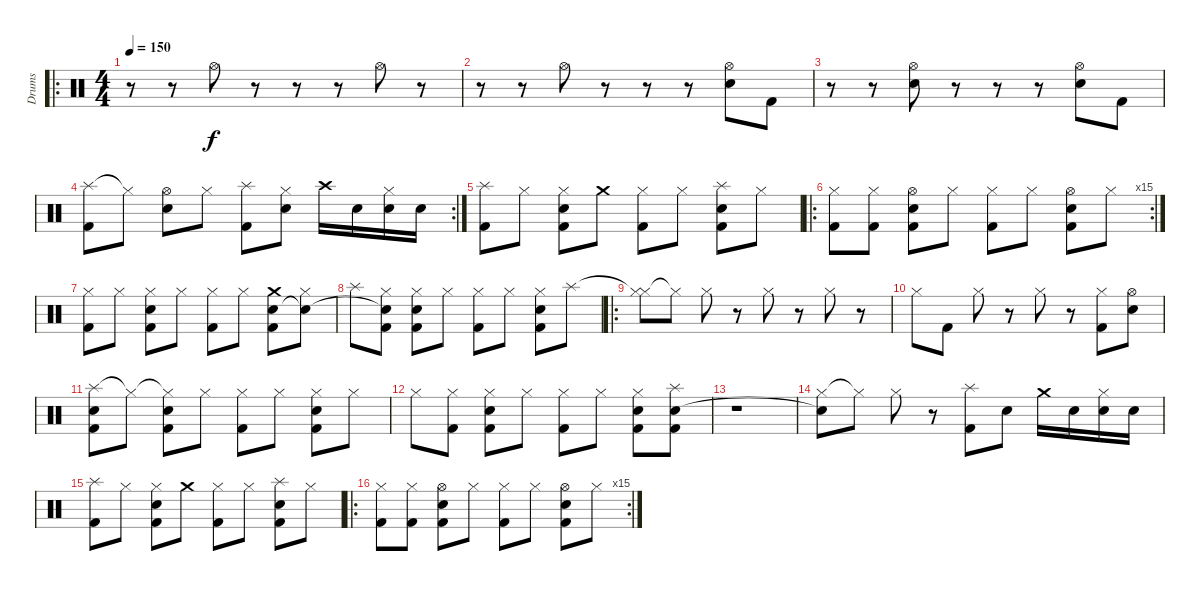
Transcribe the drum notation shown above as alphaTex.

\track ("Drums" "Drums") {instrument percussion}
\staff {score}
\articulation defaults
\ro
\ts (4 4)
\tempo 150
\clef neutral
\ks c
r.8{dy f} r.8 "Hi-Hat (open)".8 r.8 r.8 r.8 "Hi-Hat (open)".8 r.8 |
r.8 r.8 "Hi-Hat (open)".8 r.8 r.8 r.8 ("Hi-Hat (open)" "Snare (hit) 2").8 "Kick (hit) 2".8 |
r.8 r.8 ("Hi-Hat (open)" "Snare (hit) 2").8 r.8 r.8 r.8 ("Hi-Hat (open)" "Snare (hit) 2").8 "Kick (hit) 2".8 |
\rc 2
("Splash (hit)" "Kick (hit) 2").8 "Hi-Hat (closed)"{t}.8 ("Hi-Hat (open)" "Snare (hit) 2").8 "Hi-Hat (closed)".8 ("Splash (hit)" "Kick (hit) 2").8 ("Hi-Hat (closed)" "Snare (hit) 2").8 "Crash high (hit)".16 "Snare (hit) 2".16 ("Hi-Hat (closed)" "Snare (hit) 2").16 "Snare (hit) 2".16 |
("Splash (hit)" "Kick (hit) 2").8 "Hi-Hat (closed)".8 ("Hi-Hat (closed)" "Snare (hit) 2" "Kick (hit) 2").8 "Crash medium (hit)".8 ("Hi-Hat (closed)" "Kick (hit) 2").8 "Hi-Hat (closed)".8 ("Splash (hit)" "Snare (hit) 2" "Kick (hit) 2").8 "Hi-Hat (closed)".8 |
\ro
\rc 15
("Hi-Hat (closed)" "Kick (hit) 2").8 ("Hi-Hat (closed)" "Kick (hit) 2").8 ("Hi-Hat (open)" "Snare (hit) 2" "Kick (hit) 2").8 "Hi-Hat (closed)".8 ("Hi-Hat (closed)" "Kick (hit) 2").8 "Hi-Hat (closed)".8 ("Hi-Hat (open)" "Snare (hit) 2" "Kick (hit) 2").8 "Hi-Hat (closed)".8 |
("Hi-Hat (closed)" "Kick (hit) 2").8 "Hi-Hat (closed)".8 ("Hi-Hat (closed)" "Snare (hit) 2" "Kick (hit) 2").8 "Hi-Hat (closed)".8 ("Hi-Hat (closed)" "Kick (hit) 2").8 "Hi-Hat (closed)".8 ("Crash medium (hit)" "Snare (hit) 2" "Kick (hit) 2").8 ("Hi-Hat (closed)" "Snare (hit)"{t}).8 |
"Splash (hit)".8 ("Hi-Hat (closed)" "Snare (hit)"{t} "Kick (hit) 2").8 ("Hi-Hat (closed)" "Snare (hit) 2" "Kick (hit) 2").8 "Hi-Hat (closed)".8 ("Hi-Hat (closed)" "Kick (hit) 2").8 "Hi-Hat (closed)".8 ("Hi-Hat (closed)" "Snare (hit) 2" "Kick (hit) 2").8 "Splash (hit)".8 |
\ro
("Hi-Hat (closed)"{t} "Hi-Hat (closed)").8 "Hi-Hat (closed)"{t}.8 "Hi-Hat (closed)".8 r.8 "Hi-Hat (closed)".8 r.8 "Hi-Hat (closed)".8 r.8 |
"Hi-Hat (closed)".8 "Kick (hit) 2".8 "Hi-Hat (closed)".8 r.8 "Hi-Hat (closed)".8 r.8 ("Hi-Hat (closed)" "Kick (hit) 2").8 ("Hi-Hat (open)" "Snare (hit) 2").8 |
("Splash (hit)" "Snare (hit) 2" "Kick (hit) 2").8 "Hi-Hat (closed)"{t}.8 ("Hi-Hat (closed)"{t} "Snare (hit) 2" "Kick (hit) 2").8 "Hi-Hat (closed)".8 ("Hi-Hat (closed)" "Kick (hit) 2").8 "Hi-Hat (closed)".8 ("Hi-Hat (closed)" "Snare (hit) 2" "Kick (hit) 2").8 "Hi-Hat (closed)".8 |
"Hi-Hat (closed)".8 ("Hi-Hat (closed)" "Kick (hit) 2").8 ("Hi-Hat (closed)" "Snare (hit) 2" "Kick (hit) 2").8 "Hi-Hat (closed)".8 ("Hi-Hat (closed)" "Kick (hit) 2").8 "Hi-Hat (closed)".8 ("Hi-Hat (closed)" "Snare (hit) 2" "Kick (hit) 2").8 ("Splash (hit)" "Snare (hit) 2" "Kick (hit) 2").8 |
r.1 |
("Hi-Hat (closed)" "Snare (hit)"{t}).8 "Hi-Hat (closed)"{t}.8 "Hi-Hat (closed)".8 r.8 ("Splash (hit)" "Kick (hit) 2").8 "Snare (hit) 2".8 "Crash medium (hit)".16 "Snare (hit) 2".16 ("Hi-Hat (closed)" "Snare (hit) 2").16 "Snare (hit) 2".16 |
("Splash (hit)" "Kick (hit) 2").8 "Hi-Hat (closed)".8 ("Hi-Hat (closed)" "Snare (hit) 2" "Kick (hit) 2").8 "Crash medium (hit)".8 ("Hi-Hat (closed)" "Kick (hit) 2").8 "Hi-Hat (closed)".8 ("Splash (hit)" "Snare (hit) 2" "Kick (hit) 2").8 "Hi-Hat (closed)".8 |
\ro
\rc 15
("Hi-Hat (closed)" "Kick (hit) 2").8 ("Hi-Hat (closed)" "Kick (hit) 2").8 ("Hi-Hat (open)" "Snare (hit) 2" "Kick (hit) 2").8 "Hi-Hat (closed)".8 ("Hi-Hat (closed)" "Kick (hit) 2").8 "Hi-Hat (closed)".8 ("Hi-Hat (open)" "Snare (hit) 2" "Kick (hit) 2").8 "Hi-Hat (closed)".8
